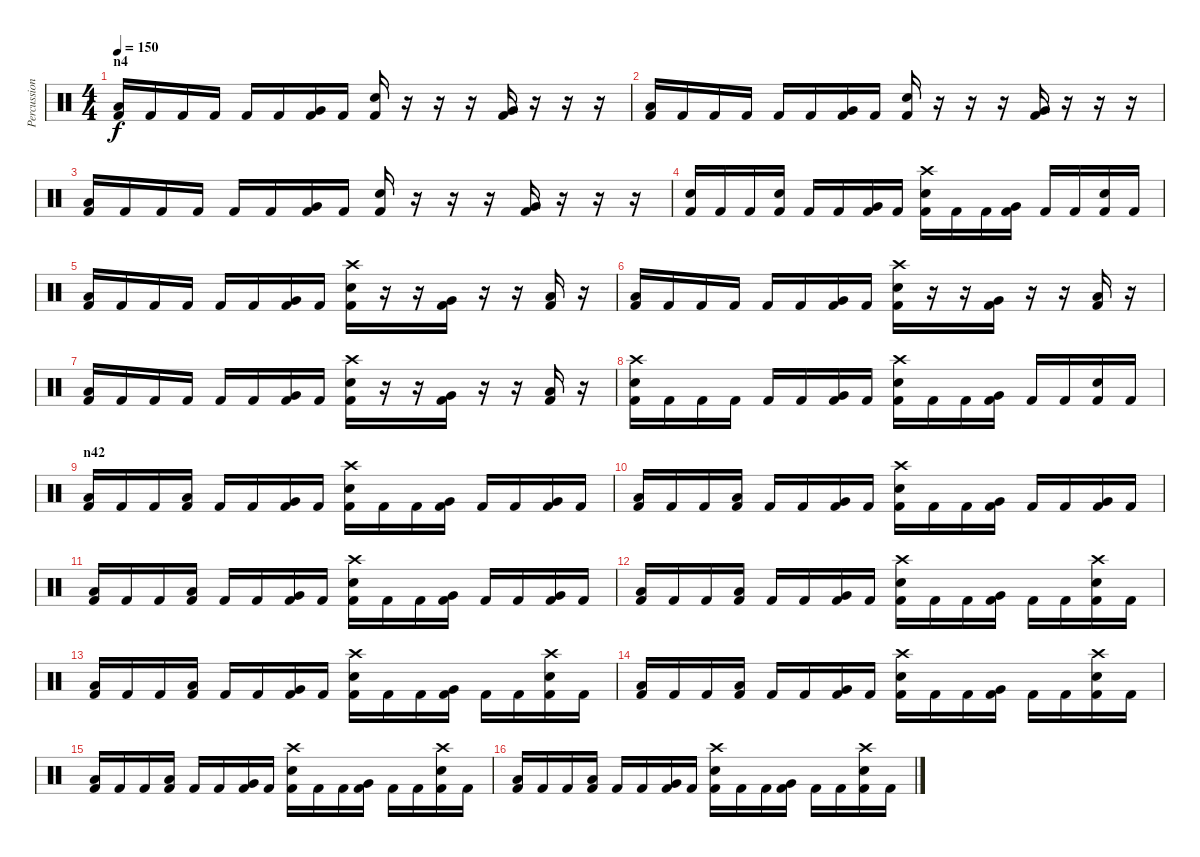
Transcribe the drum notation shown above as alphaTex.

\track ("Percussion" "Percussion") {instrument percussion}
\staff {score}
\articulation defaults
\ts (4 4)
\section ("" "n4")
\tempo 150
\clef neutral
\ks c
("Kick (hit) 2" "Low Floor Tom (hit)").16{dy f} "Kick (hit) 2".16 "Kick (hit) 2".16 "Kick (hit) 2".16 "Kick (hit) 2".16 "Kick (hit) 2".16 ("Kick (hit) 2" "Very Low Tom (hit)").16 "Kick (hit) 2".16 ("Kick (hit) 2" "Electric Snare (hit)").16 r.16 r.16 r.16 ("Kick (hit) 2" "Very Low Tom (hit)").16 r.16 r.16 r.16 |
("Kick (hit) 2" "Low Floor Tom (hit)").16 "Kick (hit) 2".16 "Kick (hit) 2".16 "Kick (hit) 2".16 "Kick (hit) 2".16 "Kick (hit) 2".16 ("Kick (hit) 2" "Very Low Tom (hit)").16 "Kick (hit) 2".16 ("Kick (hit) 2" "Electric Snare (hit)").16 r.16 r.16 r.16 ("Kick (hit) 2" "Very Low Tom (hit)").16 r.16 r.16 r.16 |
("Kick (hit) 2" "Low Floor Tom (hit)").16 "Kick (hit) 2".16 "Kick (hit) 2".16 "Kick (hit) 2".16 "Kick (hit) 2".16 "Kick (hit) 2".16 ("Kick (hit) 2" "Very Low Tom (hit)").16 "Kick (hit) 2".16 ("Kick (hit) 2" "Electric Snare (hit)").16 r.16 r.16 r.16 ("Kick (hit) 2" "Very Low Tom (hit)").16 r.16 r.16 r.16 |
("Kick (hit) 2" "Electric Snare (hit)").16 "Kick (hit) 2".16 "Kick (hit) 2".16 ("Kick (hit) 2" "Electric Snare (hit)").16 "Kick (hit) 2".16 "Kick (hit) 2".16 ("Kick (hit) 2" "Very Low Tom (hit)").16 "Kick (hit) 2".16 ("Kick (hit) 2" "Electric Snare (hit)" "Crash high (hit)").16 "Kick (hit) 2".16 "Kick (hit) 2".16 ("Kick (hit) 2" "Very Low Tom (hit)").16 "Kick (hit) 2".16 "Kick (hit) 2".16 ("Kick (hit) 2" "Electric Snare (hit)").16 "Kick (hit) 2".16 |
("Kick (hit) 2" "Low Floor Tom (hit)").16 "Kick (hit) 2".16 "Kick (hit) 2".16 "Kick (hit) 2".16 "Kick (hit) 2".16 "Kick (hit) 2".16 ("Kick (hit) 2" "Very Low Tom (hit)").16 "Kick (hit) 2".16 ("Kick (hit) 2" "Electric Snare (hit)" "Crash high (hit)").16 r.16 r.16 ("Kick (hit) 2" "Very Low Tom (hit)").16 r.16 r.16 ("Kick (hit) 2" "Low Floor Tom (hit)").16 r.16 |
("Kick (hit) 2" "Low Floor Tom (hit)").16 "Kick (hit) 2".16 "Kick (hit) 2".16 "Kick (hit) 2".16 "Kick (hit) 2".16 "Kick (hit) 2".16 ("Kick (hit) 2" "Very Low Tom (hit)").16 "Kick (hit) 2".16 ("Kick (hit) 2" "Electric Snare (hit)" "Crash high (hit)").16 r.16 r.16 ("Kick (hit) 2" "Very Low Tom (hit)").16 r.16 r.16 ("Kick (hit) 2" "Low Floor Tom (hit)").16 r.16 |
("Kick (hit) 2" "Low Floor Tom (hit)").16 "Kick (hit) 2".16 "Kick (hit) 2".16 "Kick (hit) 2".16 "Kick (hit) 2".16 "Kick (hit) 2".16 ("Kick (hit) 2" "Very Low Tom (hit)").16 "Kick (hit) 2".16 ("Kick (hit) 2" "Electric Snare (hit)" "Crash high (hit)").16 r.16 r.16 ("Kick (hit) 2" "Very Low Tom (hit)").16 r.16 r.16 ("Kick (hit) 2" "Low Floor Tom (hit)").16 r.16 |
("Kick (hit) 2" "Electric Snare (hit)" "Crash high (hit)").16 "Kick (hit) 2".16 "Kick (hit) 2".16 "Kick (hit) 2".16 "Kick (hit) 2".16 "Kick (hit) 2".16 ("Kick (hit) 2" "Very Low Tom (hit)").16 "Kick (hit) 2".16 ("Kick (hit) 2" "Electric Snare (hit)" "Crash high (hit)").16 "Kick (hit) 2".16 "Kick (hit) 2".16 ("Kick (hit) 2" "Very Low Tom (hit)").16 "Kick (hit) 2".16 "Kick (hit) 2".16 ("Kick (hit) 2" "Electric Snare (hit)").16 "Kick (hit) 2".16 |
\section ("" "n42")
("Kick (hit) 2" "Low Floor Tom (hit)").16 "Kick (hit) 2".16 "Kick (hit) 2".16 ("Kick (hit) 2" "Low Floor Tom (hit)").16 "Kick (hit) 2".16 "Kick (hit) 2".16 ("Kick (hit) 2" "Very Low Tom (hit)").16 "Kick (hit) 2".16 ("Kick (hit) 2" "Electric Snare (hit)" "Crash high (hit)").16 "Kick (hit) 2".16 "Kick (hit) 2".16 ("Kick (hit) 2" "Very Low Tom (hit)").16 "Kick (hit) 2".16 "Kick (hit) 2".16 ("Kick (hit) 2" "Very Low Tom (hit)").16 "Kick (hit) 2".16 |
("Kick (hit) 2" "Low Floor Tom (hit)").16 "Kick (hit) 2".16 "Kick (hit) 2".16 ("Kick (hit) 2" "Low Floor Tom (hit)").16 "Kick (hit) 2".16 "Kick (hit) 2".16 ("Kick (hit) 2" "Very Low Tom (hit)").16 "Kick (hit) 2".16 ("Kick (hit) 2" "Electric Snare (hit)" "Crash high (hit)").16 "Kick (hit) 2".16 "Kick (hit) 2".16 ("Kick (hit) 2" "Very Low Tom (hit)").16 "Kick (hit) 2".16 "Kick (hit) 2".16 ("Kick (hit) 2" "Very Low Tom (hit)").16 "Kick (hit) 2".16 |
("Kick (hit) 2" "Low Floor Tom (hit)").16 "Kick (hit) 2".16 "Kick (hit) 2".16 ("Kick (hit) 2" "Low Floor Tom (hit)").16 "Kick (hit) 2".16 "Kick (hit) 2".16 ("Kick (hit) 2" "Very Low Tom (hit)").16 "Kick (hit) 2".16 ("Kick (hit) 2" "Electric Snare (hit)" "Crash high (hit)").16 "Kick (hit) 2".16 "Kick (hit) 2".16 ("Kick (hit) 2" "Very Low Tom (hit)").16 "Kick (hit) 2".16 "Kick (hit) 2".16 ("Kick (hit) 2" "Very Low Tom (hit)").16 "Kick (hit) 2".16 |
("Kick (hit) 2" "Low Floor Tom (hit)").16 "Kick (hit) 2".16 "Kick (hit) 2".16 ("Kick (hit) 2" "Low Floor Tom (hit)").16 "Kick (hit) 2".16 "Kick (hit) 2".16 ("Kick (hit) 2" "Very Low Tom (hit)").16 "Kick (hit) 2".16 ("Kick (hit) 2" "Electric Snare (hit)" "Crash high (hit)").16 "Kick (hit) 2".16 "Kick (hit) 2".16 ("Kick (hit) 2" "Very Low Tom (hit)").16 "Kick (hit) 2".16 "Kick (hit) 2".16 ("Kick (hit) 2" "Electric Snare (hit)" "Crash high (hit)").16 "Kick (hit) 2".16 |
("Kick (hit) 2" "Low Floor Tom (hit)").16 "Kick (hit) 2".16 "Kick (hit) 2".16 ("Kick (hit) 2" "Low Floor Tom (hit)").16 "Kick (hit) 2".16 "Kick (hit) 2".16 ("Kick (hit) 2" "Very Low Tom (hit)").16 "Kick (hit) 2".16 ("Kick (hit) 2" "Electric Snare (hit)" "Crash high (hit)").16 "Kick (hit) 2".16 "Kick (hit) 2".16 ("Kick (hit) 2" "Very Low Tom (hit)").16 "Kick (hit) 2".16 "Kick (hit) 2".16 ("Kick (hit) 2" "Electric Snare (hit)" "Crash high (hit)").16 "Kick (hit) 2".16 |
("Kick (hit) 2" "Low Floor Tom (hit)").16 "Kick (hit) 2".16 "Kick (hit) 2".16 ("Kick (hit) 2" "Low Floor Tom (hit)").16 "Kick (hit) 2".16 "Kick (hit) 2".16 ("Kick (hit) 2" "Very Low Tom (hit)").16 "Kick (hit) 2".16 ("Kick (hit) 2" "Electric Snare (hit)" "Crash high (hit)").16 "Kick (hit) 2".16 "Kick (hit) 2".16 ("Kick (hit) 2" "Very Low Tom (hit)").16 "Kick (hit) 2".16 "Kick (hit) 2".16 ("Kick (hit) 2" "Electric Snare (hit)" "Crash high (hit)").16 "Kick (hit) 2".16 |
("Kick (hit) 2" "Low Floor Tom (hit)").16 "Kick (hit) 2".16 "Kick (hit) 2".16 ("Kick (hit) 2" "Low Floor Tom (hit)").16 "Kick (hit) 2".16 "Kick (hit) 2".16 ("Kick (hit) 2" "Very Low Tom (hit)").16 "Kick (hit) 2".16 ("Kick (hit) 2" "Electric Snare (hit)" "Crash high (hit)").16 "Kick (hit) 2".16 "Kick (hit) 2".16 ("Kick (hit) 2" "Very Low Tom (hit)").16 "Kick (hit) 2".16 "Kick (hit) 2".16 ("Kick (hit) 2" "Electric Snare (hit)" "Crash high (hit)").16 "Kick (hit) 2".16 |
("Kick (hit) 2" "Low Floor Tom (hit)").16 "Kick (hit) 2".16 "Kick (hit) 2".16 ("Kick (hit) 2" "Low Floor Tom (hit)").16 "Kick (hit) 2".16 "Kick (hit) 2".16 ("Kick (hit) 2" "Very Low Tom (hit)").16 "Kick (hit) 2".16 ("Kick (hit) 2" "Electric Snare (hit)" "Crash high (hit)").16 "Kick (hit) 2".16 "Kick (hit) 2".16 ("Kick (hit) 2" "Very Low Tom (hit)").16 "Kick (hit) 2".16 "Kick (hit) 2".16 ("Kick (hit) 2" "Electric Snare (hit)" "Crash high (hit)").16 "Kick (hit) 2".16
